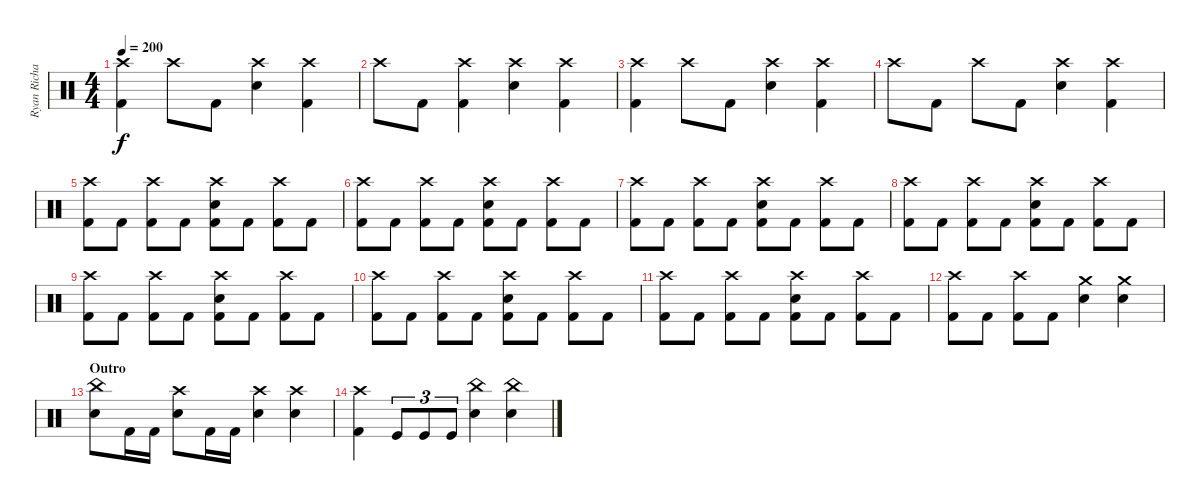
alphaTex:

\track ("Ryan Richards" "Ryan Richa") {instrument percussion}
\staff {score}
\articulation defaults
\ts (4 4)
\tempo 200
\clef neutral
\ks c
("Crash high (hit)" "Kick (hit) 2").4{dy f} "Crash high (hit)".8 "Kick (hit) 2".8 ("Crash high (hit)" "Electric Snare (hit)").4 ("Crash high (hit)" "Kick (hit) 2").4 |
"Crash high (hit)".8 "Kick (hit) 2".8 ("Crash high (hit)" "Kick (hit) 2").4 ("Crash high (hit)" "Electric Snare (hit)").4 ("Crash high (hit)" "Kick (hit) 2").4 |
("Crash high (hit)" "Kick (hit) 2").4 "Crash high (hit)".8 "Kick (hit) 2".8 ("Crash high (hit)" "Electric Snare (hit)").4 ("Crash high (hit)" "Kick (hit) 2").4 |
"Crash high (hit)".8 "Kick (hit) 2".8 "Crash high (hit)".8 "Kick (hit) 2".8 ("Crash high (hit)" "Electric Snare (hit)").4 ("Crash high (hit)" "Kick (hit) 2").4 |
("Crash high (hit)" "Kick (hit) 2").8 "Kick (hit) 2".8 ("Crash high (hit)" "Kick (hit) 2").8 "Kick (hit) 2".8 ("Crash high (hit)" "Electric Snare (hit)" "Kick (hit) 2").8 "Kick (hit) 2".8 ("Crash high (hit)" "Kick (hit) 2").8 "Kick (hit) 2".8 |
("Crash high (hit)" "Kick (hit) 2").8 "Kick (hit) 2".8 ("Crash high (hit)" "Kick (hit) 2").8 "Kick (hit) 2".8 ("Crash high (hit)" "Electric Snare (hit)" "Kick (hit) 2").8 "Kick (hit) 2".8 ("Crash high (hit)" "Kick (hit) 2").8 "Kick (hit) 2".8 |
("Crash high (hit)" "Kick (hit) 2").8 "Kick (hit) 2".8 ("Crash high (hit)" "Kick (hit) 2").8 "Kick (hit) 2".8 ("Crash high (hit)" "Electric Snare (hit)" "Kick (hit) 2").8 "Kick (hit) 2".8 ("Crash high (hit)" "Kick (hit) 2").8 "Kick (hit) 2".8 |
("Crash high (hit)" "Kick (hit) 2").8 "Kick (hit) 2".8 ("Crash high (hit)" "Kick (hit) 2").8 "Kick (hit) 2".8 ("Crash high (hit)" "Electric Snare (hit)" "Kick (hit) 2").8 "Kick (hit) 2".8 ("Crash high (hit)" "Kick (hit) 2").8 "Kick (hit) 2".8 |
("Crash high (hit)" "Kick (hit) 2").8 "Kick (hit) 2".8 ("Crash high (hit)" "Kick (hit) 2").8 "Kick (hit) 2".8 ("Crash high (hit)" "Electric Snare (hit)" "Kick (hit) 2").8 "Kick (hit) 2".8 ("Crash high (hit)" "Kick (hit) 2").8 "Kick (hit) 2".8 |
("Crash high (hit)" "Kick (hit) 2").8 "Kick (hit) 2".8 ("Crash high (hit)" "Kick (hit) 2").8 "Kick (hit) 2".8 ("Crash high (hit)" "Electric Snare (hit)" "Kick (hit) 2").8 "Kick (hit) 2".8 ("Crash high (hit)" "Kick (hit) 2").8 "Kick (hit) 2".8 |
("Crash high (hit)" "Kick (hit) 2").8 "Kick (hit) 2".8 ("Crash high (hit)" "Kick (hit) 2").8 "Kick (hit) 2".8 ("Crash high (hit)" "Electric Snare (hit)" "Kick (hit) 2").8 "Kick (hit) 2".8 ("Crash high (hit)" "Kick (hit) 2").8 "Kick (hit) 2".8 |
("Crash high (hit)" "Kick (hit) 2").8 "Kick (hit) 2".8 ("Crash high (hit)" "Kick (hit) 2").8 "Kick (hit) 2".8 ("Crash medium (hit)" "Electric Snare (hit)").4 ("Crash medium (hit)" "Electric Snare (hit)").4 |
\section ("" "Outro")
("China (hit)" "Electric Snare (hit)").8 "Kick (hit) 2".16 "Kick (hit) 2".16 ("Crash high (hit)" "Electric Snare (hit)").8 "Kick (hit) 2".16 "Kick (hit) 2".16 ("Crash high (hit)" "Electric Snare (hit)").4 ("Crash high (hit)" "Electric Snare (hit)").4 |
("Crash high (hit)" "Kick (hit) 2").4 "Kick (hit)".8{tu (3 2)} "Kick (hit)".8{tu (3 2)} "Kick (hit)".8{tu (3 2)} ("China (hit)" "Electric Snare (hit)").4 ("China (hit)" "Electric Snare (hit)").4
